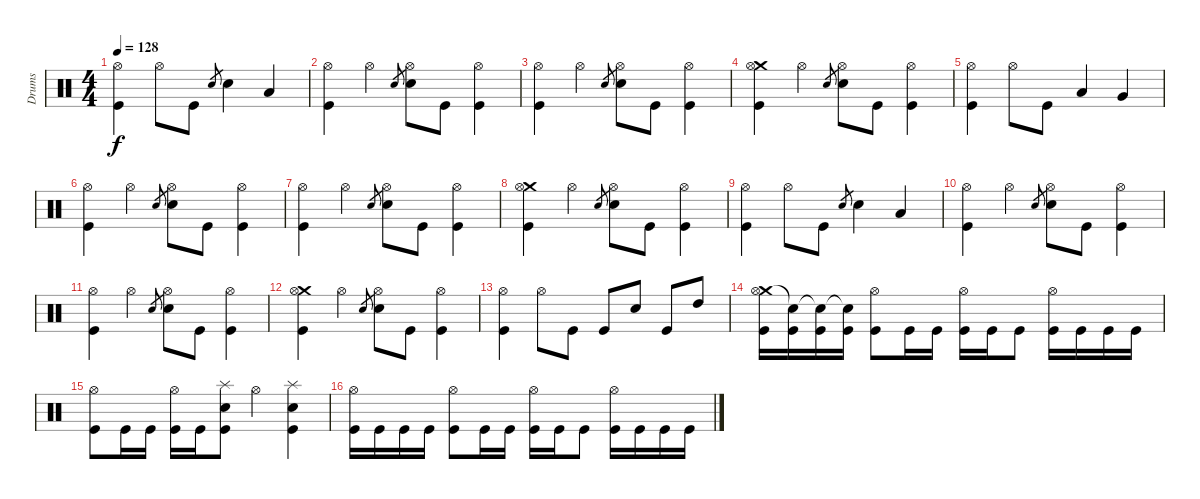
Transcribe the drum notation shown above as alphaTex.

\track ("Drums" "Drums") {instrument percussion}
\staff {score}
\articulation defaults
\ts (4 4)
\tempo 128
\clef neutral
\ks c
("Hi-Hat (open)" "Kick (hit)").4{dy f} "Hi-Hat (open)".8 "Kick (hit)".8 "Snare (hit) 2".8{gr} "Snare (hit) 2".4 "Low Tom (hit)".4 |
("Hi-Hat (open)" "Kick (hit)").4 "Hi-Hat (open)".4 "Snare (hit) 2".8{gr} ("Hi-Hat (open)" "Snare (hit) 2").8 "Kick (hit)".8 ("Hi-Hat (open)" "Kick (hit)").4 |
("Hi-Hat (open)" "Kick (hit)").4 "Hi-Hat (open)".4 "Snare (hit) 2".8{gr} ("Hi-Hat (open)" "Snare (hit) 2").8 "Kick (hit)".8 ("Hi-Hat (open)" "Kick (hit)").4 |
("Crash medium (hit)" "Hi-Hat (open)" "Kick (hit)").4 "Hi-Hat (open)".4 "Snare (hit) 2".8{gr} ("Hi-Hat (open)" "Snare (hit) 2").8 "Kick (hit)".8 ("Hi-Hat (open)" "Kick (hit)").4 |
("Hi-Hat (open)" "Kick (hit)").4 "Hi-Hat (open)".8 "Kick (hit)".8 "Low Tom (hit)".4 "Very Low Tom (hit)".4 |
("Hi-Hat (open)" "Kick (hit)").4 "Hi-Hat (open)".4 "Snare (hit) 2".8{gr} ("Hi-Hat (open)" "Snare (hit) 2").8 "Kick (hit)".8 ("Hi-Hat (open)" "Kick (hit)").4 |
("Hi-Hat (open)" "Kick (hit)").4 "Hi-Hat (open)".4 "Snare (hit) 2".8{gr} ("Hi-Hat (open)" "Snare (hit) 2").8 "Kick (hit)".8 ("Hi-Hat (open)" "Kick (hit)").4 |
("Crash medium (hit)" "Hi-Hat (open)" "Kick (hit)").4 "Hi-Hat (open)".4 "Snare (hit) 2".8{gr} ("Hi-Hat (open)" "Snare (hit) 2").8 "Kick (hit)".8 ("Hi-Hat (open)" "Kick (hit)").4 |
("Hi-Hat (open)" "Kick (hit)").4 "Hi-Hat (open)".8 "Kick (hit)".8 "Snare (hit) 2".8{gr} "Snare (hit) 2".4 "Low Floor Tom (hit)".4 |
("Hi-Hat (open)" "Kick (hit)").4 "Hi-Hat (open)".4 "Snare (hit) 2".8{gr} ("Hi-Hat (open)" "Snare (hit) 2").8 "Kick (hit)".8 ("Hi-Hat (open)" "Kick (hit)").4 |
("Hi-Hat (open)" "Kick (hit)").4 "Hi-Hat (open)".4 "Snare (hit) 2".8{gr} ("Hi-Hat (open)" "Snare (hit) 2").8 "Kick (hit)".8 ("Hi-Hat (open)" "Kick (hit)").4 |
("Crash medium (hit)" "Hi-Hat (open)" "Kick (hit)").4 "Hi-Hat (open)".4 "Snare (hit) 2".8{gr} ("Hi-Hat (open)" "Snare (hit) 2").8 "Kick (hit)".8 ("Hi-Hat (open)" "Kick (hit)").4 |
("Hi-Hat (open)" "Kick (hit)").4 "Hi-Hat (open)".8 "Kick (hit)".8 "Kick (hit)".8 "Snare (hit) 2".8 "Kick (hit)".8 "High Tom (hit)".8 |
("Crash medium (hit)" "Hi-Hat (open)" "Kick (hit)").16 ("Snare (hit)"{t} "Kick (hit)").16 ("Snare (hit)"{t} "Kick (hit)").16 ("Snare (hit)"{t} "Kick (hit)").16 ("Hi-Hat (open)" "Kick (hit)").8 "Kick (hit)".16 "Kick (hit)".16 ("Hi-Hat (open)" "Kick (hit)").16 "Kick (hit)".16 "Kick (hit)".8 ("Hi-Hat (open)" "Kick (hit)").16 "Kick (hit)".16 "Kick (hit)".16 "Kick (hit)".16 |
("Hi-Hat (open)" "Kick (hit)").8 "Kick (hit)".16 "Kick (hit)".16 ("Hi-Hat (open)" "Kick (hit)").16 "Kick (hit)".16 ("Splash (hit)" "Snare (hit) 2" "Kick (hit)").8 "Hi-Hat (open)".4 ("Splash (hit)" "Snare (hit) 2" "Kick (hit)").4 |
("Hi-Hat (open)" "Kick (hit)").16 "Kick (hit)".16 "Kick (hit)".16 "Kick (hit)".16 ("Hi-Hat (open)" "Kick (hit)").8 "Kick (hit)".16 "Kick (hit)".16 ("Hi-Hat (open)" "Kick (hit)").16 "Kick (hit)".16 "Kick (hit)".8 ("Hi-Hat (open)" "Kick (hit)").16 "Kick (hit)".16 "Kick (hit)".16 "Kick (hit)".16
